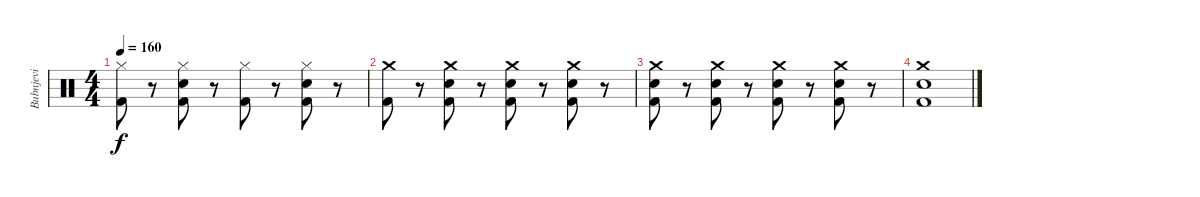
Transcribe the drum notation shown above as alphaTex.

\track ("Bubnjevi" "Bubnjevi") {instrument percussion}
\staff {score}
\articulation defaults
\ts (4 4)
\tempo 160
\clef neutral
\ks c
("Hi-Hat (closed)" "Kick (hit) 2").8{dy f} r.8 ("Electric Snare (hit)" "Hi-Hat (closed)" "Kick (hit) 2").8 r.8 ("Hi-Hat (closed)" "Kick (hit) 2").8 r.8 ("Electric Snare (hit)" "Hi-Hat (closed)" "Kick (hit) 2").8 r.8 |
("Crash medium (hit)" "Kick (hit) 2").8 r.8 ("Crash medium (hit)" "Electric Snare (hit)" "Kick (hit) 2").8 r.8 ("Crash medium (hit)" "Electric Snare (hit)" "Kick (hit) 2").8 r.8 ("Crash medium (hit)" "Electric Snare (hit)" "Kick (hit) 2").8 r.8 |
("Crash medium (hit)" "Electric Snare (hit)" "Kick (hit) 2").8 r.8 ("Crash medium (hit)" "Electric Snare (hit)" "Kick (hit) 2").8 r.8 ("Crash medium (hit)" "Electric Snare (hit)" "Kick (hit) 2").8 r.8 ("Crash medium (hit)" "Electric Snare (hit)" "Kick (hit) 2").8 r.8 |
("Crash medium (hit)" "Electric Snare (hit)" "Kick (hit) 2").1
